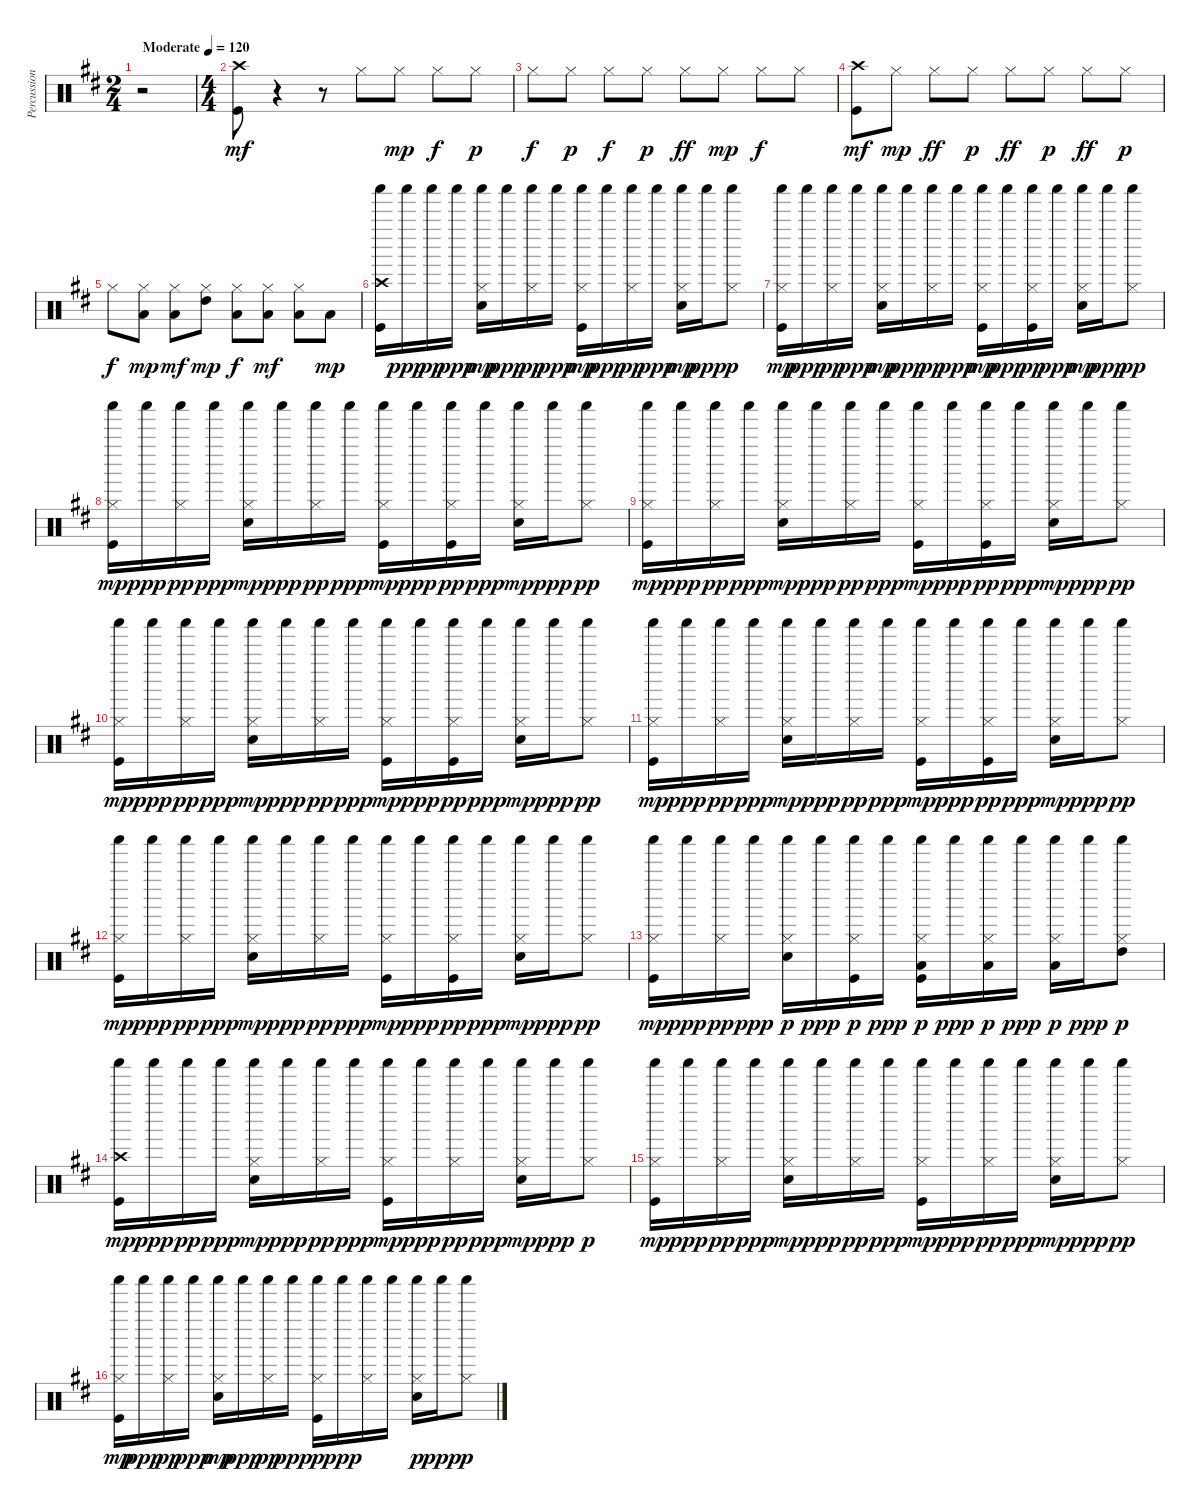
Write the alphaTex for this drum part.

\track ("Percussion" "Percussion") {instrument percussion}
\staff {score}
\articulation defaults
\ts (2 4)
\tempo (120 "Moderate")
\clef neutral
\ks d
r.2{dy mf} |
\ts (4 4)
("Kick (hit)" "Crash high (hit)").8 r.4 r.8 "Hi-Hat (closed)".8 "Hi-Hat (closed)".8{dy mp} "Hi-Hat (closed)".8{dy f} "Hi-Hat (closed)".8{dy p} |
"Hi-Hat (closed)".8{dy f} "Hi-Hat (closed)".8{dy p} "Hi-Hat (closed)".8{dy f} "Hi-Hat (closed)".8{dy p} "Hi-Hat (closed)".8{dy ff} "Hi-Hat (closed)".8{dy mp} "Hi-Hat (closed)".8{dy f} "Hi-Hat (closed)".8 |
("Kick (hit)" "Crash high (hit)").8{dy mf} "Hi-Hat (closed)".8{dy mp} "Hi-Hat (closed)".8{dy ff} "Hi-Hat (closed)".8{dy p} "Hi-Hat (closed)".8{dy ff} "Hi-Hat (closed)".8{dy p} "Hi-Hat (closed)".8{dy ff} "Hi-Hat (closed)".8{dy p} |
"Hi-Hat (closed)".8{dy f} ("Hi-Hat (closed)" "Low Tom (hit)").8{dy mp} ("Hi-Hat (closed)" "Low Tom (hit)").8{dy mf} ("Hi-Hat (closed)" "High Tom (hit)").8{dy mp} ("Hi-Hat (closed)" "Low Tom (hit)").8{dy f} ("Hi-Hat (closed)" "Low Tom (hit)").8{dy mf} ("Hi-Hat (closed)" "Low Tom (hit)").8 "Low Tom (hit)".8{dy mp} |
("Kick (hit)" "Crash high (hit)" "Shaker (hit)").16 "Shaker (hit)".16{dy ppp} "Shaker (hit)".16{dy pp} "Shaker (hit)".16{dy ppp} ("Electric Snare (hit)" "Hi-Hat (closed)" "Shaker (hit)").16{dy mp} "Shaker (hit)".16{dy ppp} ("Hi-Hat (closed)" "Shaker (hit)").16{dy pp} "Shaker (hit)".16{dy ppp} ("Kick (hit)" "Hi-Hat (closed)" "Shaker (hit)").16{dy mp} "Shaker (hit)".16{dy ppp} ("Hi-Hat (closed)" "Shaker (hit)").16{dy pp} "Shaker (hit)".16{dy ppp} ("Electric Snare (hit)" "Hi-Hat (closed)" "Shaker (hit)").16{dy mp} "Shaker (hit)".16{dy ppp} ("Hi-Hat (closed)" "Shaker (hit)").8{dy p} |
("Kick (hit)" "Hi-Hat (closed)" "Shaker (hit)").16{dy mp} "Shaker (hit)".16{dy ppp} ("Hi-Hat (closed)" "Shaker (hit)").16{dy pp} "Shaker (hit)".16{dy ppp} ("Electric Snare (hit)" "Hi-Hat (closed)" "Shaker (hit)").16{dy mp} "Shaker (hit)".16{dy ppp} ("Hi-Hat (closed)" "Shaker (hit)").16{dy pp} "Shaker (hit)".16{dy ppp} ("Kick (hit)" "Hi-Hat (closed)" "Shaker (hit)").16{dy mp} "Shaker (hit)".16{dy ppp} ("Kick (hit)" "Hi-Hat (closed)" "Shaker (hit)").16{dy pp} "Shaker (hit)".16{dy ppp} ("Electric Snare (hit)" "Hi-Hat (closed)" "Shaker (hit)").16{dy mp} "Shaker (hit)".16{dy ppp} ("Hi-Hat (closed)" "Shaker (hit)").8{dy pp} |
("Kick (hit)" "Hi-Hat (closed)" "Shaker (hit)").16{dy mp} "Shaker (hit)".16{dy ppp} ("Hi-Hat (closed)" "Shaker (hit)").16{dy pp} "Shaker (hit)".16{dy ppp} ("Electric Snare (hit)" "Hi-Hat (closed)" "Shaker (hit)").16{dy mp} "Shaker (hit)".16{dy ppp} ("Hi-Hat (closed)" "Shaker (hit)").16{dy pp} "Shaker (hit)".16{dy ppp} ("Kick (hit)" "Hi-Hat (closed)" "Shaker (hit)").16{dy mp} "Shaker (hit)".16{dy ppp} ("Kick (hit)" "Hi-Hat (closed)" "Shaker (hit)").16{dy pp} "Shaker (hit)".16{dy ppp} ("Electric Snare (hit)" "Hi-Hat (closed)" "Shaker (hit)").16{dy mp} "Shaker (hit)".16{dy ppp} ("Hi-Hat (closed)" "Shaker (hit)").8{dy pp} |
("Kick (hit)" "Hi-Hat (closed)" "Shaker (hit)").16{dy mp} "Shaker (hit)".16{dy ppp} ("Hi-Hat (closed)" "Shaker (hit)").16{dy pp} "Shaker (hit)".16{dy ppp} ("Electric Snare (hit)" "Hi-Hat (closed)" "Shaker (hit)").16{dy mp} "Shaker (hit)".16{dy ppp} ("Hi-Hat (closed)" "Shaker (hit)").16{dy pp} "Shaker (hit)".16{dy ppp} ("Kick (hit)" "Hi-Hat (closed)" "Shaker (hit)").16{dy mp} "Shaker (hit)".16{dy ppp} ("Kick (hit)" "Hi-Hat (closed)" "Shaker (hit)").16{dy pp} "Shaker (hit)".16{dy ppp} ("Electric Snare (hit)" "Hi-Hat (closed)" "Shaker (hit)").16{dy mp} "Shaker (hit)".16{dy ppp} ("Hi-Hat (closed)" "Shaker (hit)").8{dy pp} |
("Kick (hit)" "Hi-Hat (closed)" "Shaker (hit)").16{dy mp} "Shaker (hit)".16{dy ppp} ("Hi-Hat (closed)" "Shaker (hit)").16{dy pp} "Shaker (hit)".16{dy ppp} ("Electric Snare (hit)" "Hi-Hat (closed)" "Shaker (hit)").16{dy mp} "Shaker (hit)".16{dy ppp} ("Hi-Hat (closed)" "Shaker (hit)").16{dy pp} "Shaker (hit)".16{dy ppp} ("Kick (hit)" "Hi-Hat (closed)" "Shaker (hit)").16{dy mp} "Shaker (hit)".16{dy ppp} ("Kick (hit)" "Hi-Hat (closed)" "Shaker (hit)").16{dy pp} "Shaker (hit)".16{dy ppp} ("Electric Snare (hit)" "Hi-Hat (closed)" "Shaker (hit)").16{dy mp} "Shaker (hit)".16{dy ppp} ("Hi-Hat (closed)" "Shaker (hit)").8{dy pp} |
("Kick (hit)" "Hi-Hat (closed)" "Shaker (hit)").16{dy mp} "Shaker (hit)".16{dy ppp} ("Hi-Hat (closed)" "Shaker (hit)").16{dy pp} "Shaker (hit)".16{dy ppp} ("Electric Snare (hit)" "Hi-Hat (closed)" "Shaker (hit)").16{dy mp} "Shaker (hit)".16{dy ppp} ("Hi-Hat (closed)" "Shaker (hit)").16{dy pp} "Shaker (hit)".16{dy ppp} ("Kick (hit)" "Hi-Hat (closed)" "Shaker (hit)").16{dy mp} "Shaker (hit)".16{dy ppp} ("Kick (hit)" "Hi-Hat (closed)" "Shaker (hit)").16{dy pp} "Shaker (hit)".16{dy ppp} ("Electric Snare (hit)" "Hi-Hat (closed)" "Shaker (hit)").16{dy mp} "Shaker (hit)".16{dy ppp} ("Hi-Hat (closed)" "Shaker (hit)").8{dy pp} |
("Kick (hit)" "Hi-Hat (closed)" "Shaker (hit)").16{dy mp} "Shaker (hit)".16{dy ppp} ("Hi-Hat (closed)" "Shaker (hit)").16{dy pp} "Shaker (hit)".16{dy ppp} ("Electric Snare (hit)" "Hi-Hat (closed)" "Shaker (hit)").16{dy mp} "Shaker (hit)".16{dy ppp} ("Hi-Hat (closed)" "Shaker (hit)").16{dy pp} "Shaker (hit)".16{dy ppp} ("Kick (hit)" "Hi-Hat (closed)" "Shaker (hit)").16{dy mp} "Shaker (hit)".16{dy ppp} ("Kick (hit)" "Hi-Hat (closed)" "Shaker (hit)").16{dy pp} "Shaker (hit)".16{dy ppp} ("Electric Snare (hit)" "Hi-Hat (closed)" "Shaker (hit)").16{dy mp} "Shaker (hit)".16{dy ppp} ("Hi-Hat (closed)" "Shaker (hit)").8{dy pp} |
("Kick (hit)" "Hi-Hat (closed)" "Shaker (hit)").16{dy mp} "Shaker (hit)".16{dy ppp} ("Hi-Hat (closed)" "Shaker (hit)").16{dy pp} "Shaker (hit)".16{dy ppp} ("Electric Snare (hit)" "Hi-Hat (closed)" "Shaker (hit)").16{dy p} "Shaker (hit)".16{dy ppp} ("Kick (hit)" "Hi-Hat (closed)" "Shaker (hit)").16{dy p} "Shaker (hit)".16{dy ppp} ("Kick (hit)" "Hi-Hat (closed)" "Low Tom (hit)" "Shaker (hit)").16{dy p} "Shaker (hit)".16{dy ppp} ("Hi-Hat (closed)" "Low Tom (hit)" "Shaker (hit)").16{dy p} "Shaker (hit)".16{dy ppp} ("Hi-Hat (closed)" "Low Tom (hit)" "Shaker (hit)").16{dy p} "Shaker (hit)".16{dy ppp} ("Hi-Hat (closed)" "High Tom (hit)" "Shaker (hit)").8{dy p} |
("Kick (hit)" "Crash high (hit)" "Shaker (hit)").16{dy mp} "Shaker (hit)".16{dy ppp} "Shaker (hit)".16{dy pp} "Shaker (hit)".16{dy ppp} ("Electric Snare (hit)" "Hi-Hat (closed)" "Shaker (hit)").16{dy mp} "Shaker (hit)".16{dy ppp} ("Hi-Hat (closed)" "Shaker (hit)").16{dy pp} "Shaker (hit)".16{dy ppp} ("Kick (hit)" "Hi-Hat (closed)" "Shaker (hit)").16{dy mp} "Shaker (hit)".16{dy ppp} ("Hi-Hat (closed)" "Shaker (hit)").16{dy pp} "Shaker (hit)".16{dy ppp} ("Electric Snare (hit)" "Hi-Hat (closed)" "Shaker (hit)").16{dy mp} "Shaker (hit)".16{dy ppp} ("Hi-Hat (closed)" "Shaker (hit)").8{dy p} |
("Kick (hit)" "Hi-Hat (closed)" "Shaker (hit)").16{dy mp} "Shaker (hit)".16{dy ppp} ("Hi-Hat (closed)" "Shaker (hit)").16{dy pp} "Shaker (hit)".16{dy ppp} ("Electric Snare (hit)" "Hi-Hat (closed)" "Shaker (hit)").16{dy mp} "Shaker (hit)".16{dy ppp} ("Hi-Hat (closed)" "Shaker (hit)").16{dy pp} "Shaker (hit)".16{dy ppp} ("Kick (hit)" "Hi-Hat (closed)" "Shaker (hit)").16{dy mp} "Shaker (hit)".16{dy ppp} ("Hi-Hat (closed)" "Shaker (hit)").16{dy pp} "Shaker (hit)".16{dy ppp} ("Electric Snare (hit)" "Hi-Hat (closed)" "Shaker (hit)").16{dy mp} "Shaker (hit)".16{dy ppp} ("Hi-Hat (closed)" "Shaker (hit)").8{dy pp} |
("Kick (hit)" "Hi-Hat (closed)" "Shaker (hit)").16{dy mp} "Shaker (hit)".16{dy ppp} ("Hi-Hat (closed)" "Shaker (hit)").16{dy pp} "Shaker (hit)".16{dy ppp} ("Electric Snare (hit)" "Hi-Hat (closed)" "Shaker (hit)").16{dy mp} "Shaker (hit)".16{dy ppp} ("Hi-Hat (closed)" "Shaker (hit)").16{dy pp} "Shaker (hit)".16{dy ppp} ("Kick (hit)" "Hi-Hat (closed)" "Shaker (hit)").16{dy p} "Shaker (hit)".16{dy ppp} ("Hi-Hat (closed)" "Shaker (hit)").16 "Shaker (hit)".16 ("Electric Snare (hit)" "Hi-Hat (closed)" "Shaker (hit)").16{dy p} "Shaker (hit)".16{dy ppp} ("Hi-Hat (closed)" "Shaker (hit)").8{dy p}
